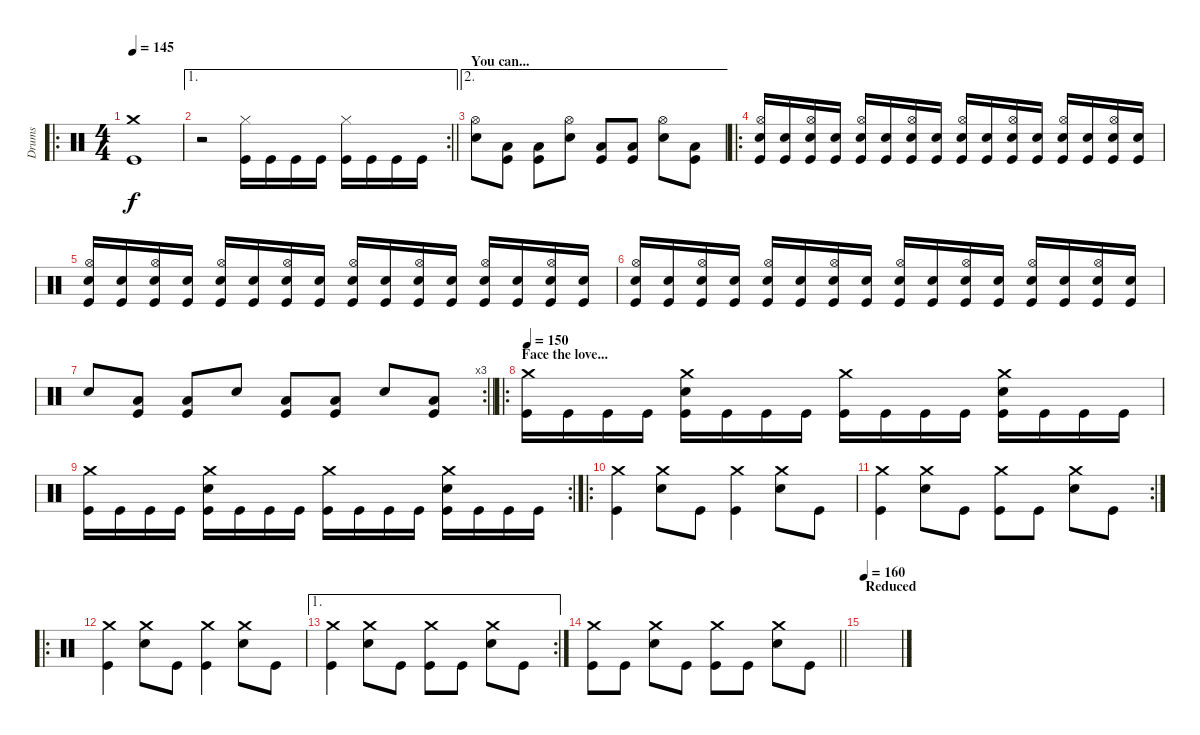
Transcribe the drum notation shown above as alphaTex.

\track ("Drums" "Drums") {instrument percussion}
\staff {score}
\articulation defaults
\ro
\ts (4 4)
\tempo 145
\clef neutral
\ks c
("Crash medium (hit)" "Kick (hit)").1{dy f} |
\ae 1
\rc 2
\barLineRight lightlight
r.2 ("Hi-Hat (closed)" "Kick (hit)").16 "Kick (hit)".16 "Kick (hit)".16 "Kick (hit)".16 ("Hi-Hat (closed)" "Kick (hit)").16 "Kick (hit)".16 "Kick (hit)".16 "Kick (hit)".16 |
\ae 2
\section ("" "You can...")
("Hi-Hat (open)" "Electric Snare (hit)").8 ("Low Floor Tom (hit)" "Kick (hit)").8 ("Low Floor Tom (hit)" "Kick (hit)").8 ("Hi-Hat (open)" "Electric Snare (hit)").8 ("Low Floor Tom (hit)" "Kick (hit)").8 ("Low Floor Tom (hit)" "Kick (hit)").8 ("Hi-Hat (open)" "Electric Snare (hit)").8 ("Low Floor Tom (hit)" "Kick (hit)").8 |
\ro
("Hi-Hat (open)" "Electric Snare (hit)" "Kick (hit)").16 ("Electric Snare (hit)" "Kick (hit)").16 ("Hi-Hat (open)" "Electric Snare (hit)" "Kick (hit)").16 ("Electric Snare (hit)" "Kick (hit)").16 ("Hi-Hat (open)" "Electric Snare (hit)" "Kick (hit)").16 ("Electric Snare (hit)" "Kick (hit)").16 ("Hi-Hat (open)" "Electric Snare (hit)" "Kick (hit)").16 ("Electric Snare (hit)" "Kick (hit)").16 ("Hi-Hat (open)" "Electric Snare (hit)" "Kick (hit)").16 ("Electric Snare (hit)" "Kick (hit)").16 ("Hi-Hat (open)" "Electric Snare (hit)" "Kick (hit)").16 ("Electric Snare (hit)" "Kick (hit)").16 ("Hi-Hat (open)" "Electric Snare (hit)" "Kick (hit)").16 ("Electric Snare (hit)" "Kick (hit)").16 ("Hi-Hat (open)" "Electric Snare (hit)" "Kick (hit)").16 ("Electric Snare (hit)" "Kick (hit)").16 |
("Hi-Hat (open)" "Electric Snare (hit)" "Kick (hit)").16 ("Electric Snare (hit)" "Kick (hit)").16 ("Hi-Hat (open)" "Electric Snare (hit)" "Kick (hit)").16 ("Electric Snare (hit)" "Kick (hit)").16 ("Hi-Hat (open)" "Electric Snare (hit)" "Kick (hit)").16 ("Electric Snare (hit)" "Kick (hit)").16 ("Hi-Hat (open)" "Electric Snare (hit)" "Kick (hit)").16 ("Electric Snare (hit)" "Kick (hit)").16 ("Hi-Hat (open)" "Electric Snare (hit)" "Kick (hit)").16 ("Electric Snare (hit)" "Kick (hit)").16 ("Hi-Hat (open)" "Electric Snare (hit)" "Kick (hit)").16 ("Electric Snare (hit)" "Kick (hit)").16 ("Hi-Hat (open)" "Electric Snare (hit)" "Kick (hit)").16 ("Electric Snare (hit)" "Kick (hit)").16 ("Hi-Hat (open)" "Electric Snare (hit)" "Kick (hit)").16 ("Electric Snare (hit)" "Kick (hit)").16 |
("Hi-Hat (open)" "Electric Snare (hit)" "Kick (hit)").16 ("Electric Snare (hit)" "Kick (hit)").16 ("Hi-Hat (open)" "Electric Snare (hit)" "Kick (hit)").16 ("Electric Snare (hit)" "Kick (hit)").16 ("Hi-Hat (open)" "Electric Snare (hit)" "Kick (hit)").16 ("Electric Snare (hit)" "Kick (hit)").16 ("Hi-Hat (open)" "Electric Snare (hit)" "Kick (hit)").16 ("Electric Snare (hit)" "Kick (hit)").16 ("Hi-Hat (open)" "Electric Snare (hit)" "Kick (hit)").16 ("Electric Snare (hit)" "Kick (hit)").16 ("Hi-Hat (open)" "Electric Snare (hit)" "Kick (hit)").16 ("Electric Snare (hit)" "Kick (hit)").16 ("Hi-Hat (open)" "Electric Snare (hit)" "Kick (hit)").16 ("Electric Snare (hit)" "Kick (hit)").16 ("Hi-Hat (open)" "Electric Snare (hit)" "Kick (hit)").16 ("Electric Snare (hit)" "Kick (hit)").16 |
\rc 3
\barLineRight lightlight "Electric Snare (hit)".8
("Low Floor Tom (hit)" "Kick (hit)").8 ("Low Floor Tom (hit)" "Kick (hit)").8 "Electric Snare (hit)".8 ("Low Floor Tom (hit)" "Kick (hit)").8 ("Low Floor Tom (hit)" "Kick (hit)").8 "Electric Snare (hit)".8 ("Low Floor Tom (hit)" "Kick (hit)").8 |
\ro
\section ("" "Face the love...")
\tempo 150
("Crash medium (hit)" "Kick (hit)").16 "Kick (hit)".16 "Kick (hit)".16 "Kick (hit)".16 ("Crash medium (hit)" "Electric Snare (hit)" "Kick (hit)").16 "Kick (hit)".16 "Kick (hit)".16 "Kick (hit)".16 ("Crash medium (hit)" "Kick (hit)").16 "Kick (hit)".16 "Kick (hit)".16 "Kick (hit)".16 ("Crash medium (hit)" "Electric Snare (hit)" "Kick (hit)").16 "Kick (hit)".16 "Kick (hit)".16 "Kick (hit)".16 |
\rc 2
("Crash medium (hit)" "Kick (hit)").16 "Kick (hit)".16 "Kick (hit)".16 "Kick (hit)".16 ("Crash medium (hit)" "Electric Snare (hit)" "Kick (hit)").16 "Kick (hit)".16 "Kick (hit)".16 "Kick (hit)".16 ("Crash medium (hit)" "Kick (hit)").16 "Kick (hit)".16 "Kick (hit)".16 "Kick (hit)".16 ("Crash medium (hit)" "Electric Snare (hit)" "Kick (hit)").16 "Kick (hit)".16 "Kick (hit)".16 "Kick (hit)".16 |
\ro
("Crash medium (hit)" "Kick (hit)").4 ("Crash medium (hit)" "Electric Snare (hit)").8 "Kick (hit)".8 ("Crash medium (hit)" "Kick (hit)").4 ("Crash medium (hit)" "Electric Snare (hit)").8 "Kick (hit)".8 |
\rc 2
("Crash medium (hit)" "Kick (hit)").4 ("Crash medium (hit)" "Electric Snare (hit)").8 "Kick (hit)".8 ("Crash medium (hit)" "Kick (hit)").8 "Kick (hit)".8 ("Crash medium (hit)" "Electric Snare (hit)").8 "Kick (hit)".8 |
\ro
("Crash medium (hit)" "Kick (hit)").4 ("Crash medium (hit)" "Electric Snare (hit)").8 "Kick (hit)".8 ("Crash medium (hit)" "Kick (hit)").4 ("Crash medium (hit)" "Electric Snare (hit)").8 "Kick (hit)".8 |
\ae 1
\rc 2
("Crash medium (hit)" "Kick (hit)").4 ("Crash medium (hit)" "Electric Snare (hit)").8 "Kick (hit)".8 ("Crash medium (hit)" "Kick (hit)").8 "Kick (hit)".8 ("Crash medium (hit)" "Electric Snare (hit)").8 "Kick (hit)".8 |
\barLineRight lightlight
("Crash medium (hit)" "Kick (hit)").8 "Kick (hit)".8 ("Crash medium (hit)" "Electric Snare (hit)").8 "Kick (hit)".8 ("Crash medium (hit)" "Kick (hit)").8 "Kick (hit)".8 ("Crash medium (hit)" "Electric Snare (hit)").8 "Kick (hit)".8 |
\section ("" "Reduced")
\tempo 160
